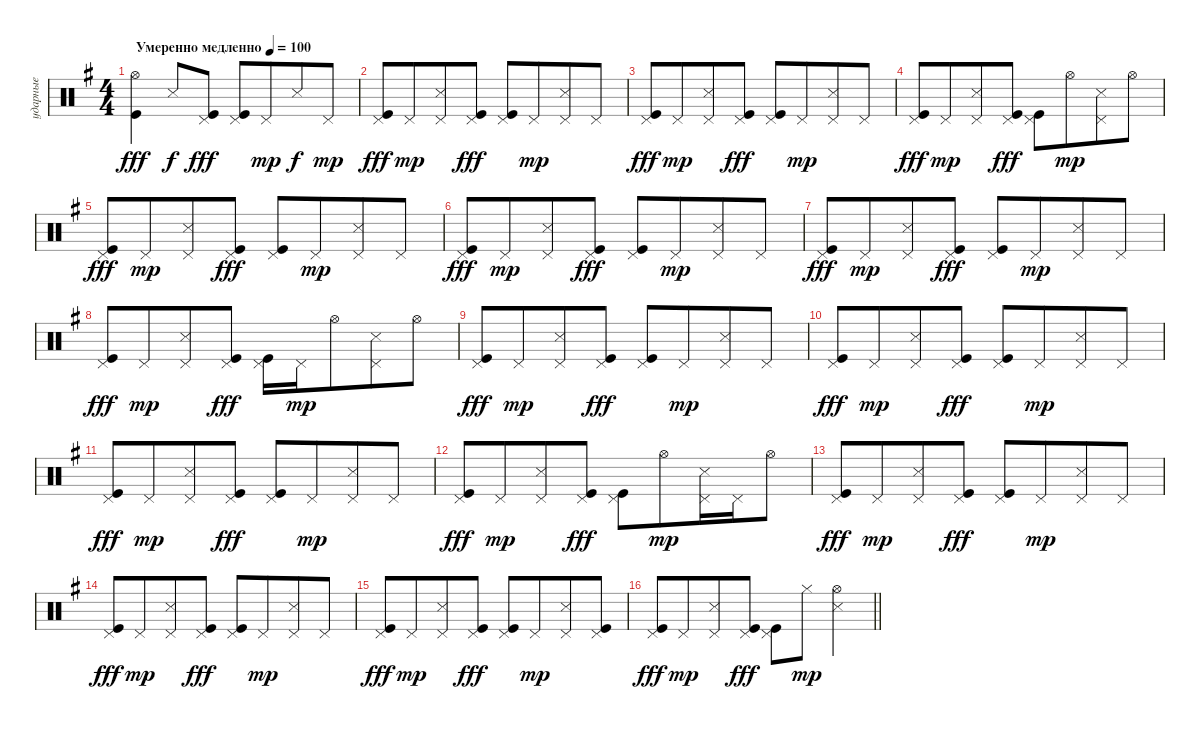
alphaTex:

\track ("ударные" "ударные") {instrument percussion}
\staff {score}
\articulation defaults
\ts (4 4)
\section ("" "")
\tempo (100 "Умеренно медленно")
\clef neutral
\ks eminor
("Hi-Hat (open)" "Kick (hit)").4{dy fff} "Snare (side stick) 3".8{dy f} ("Pedal Hi-Hat (hit)" "Kick (hit)").8{dy fff} ("Pedal Hi-Hat (hit)" "Kick (hit)").8 "Pedal Hi-Hat (hit)".8{dy mp beam merge} "Snare (side stick) 3".8{dy f} "Pedal Hi-Hat (hit)".8{dy mp} |
("Pedal Hi-Hat (hit)" "Kick (hit)").8{dy fff} "Pedal Hi-Hat (hit)".8{dy mp beam merge} ("Pedal Hi-Hat (hit)" "Snare (side stick) 3").8 ("Pedal Hi-Hat (hit)" "Kick (hit)").8{dy fff} ("Pedal Hi-Hat (hit)" "Kick (hit)").8 "Pedal Hi-Hat (hit)".8{dy mp beam merge} ("Pedal Hi-Hat (hit)" "Snare (side stick) 3").8 "Pedal Hi-Hat (hit)".8 |
("Pedal Hi-Hat (hit)" "Kick (hit)").8{dy fff} "Pedal Hi-Hat (hit)".8{dy mp beam merge} ("Pedal Hi-Hat (hit)" "Snare (side stick) 3").8 ("Pedal Hi-Hat (hit)" "Kick (hit)").8{dy fff} ("Pedal Hi-Hat (hit)" "Kick (hit)").8 "Pedal Hi-Hat (hit)".8{dy mp beam merge} ("Pedal Hi-Hat (hit)" "Snare (side stick) 3").8 "Pedal Hi-Hat (hit)".8 |
("Pedal Hi-Hat (hit)" "Kick (hit)").8{dy fff} "Pedal Hi-Hat (hit)".8{dy mp beam merge} ("Pedal Hi-Hat (hit)" "Snare (side stick) 3").8 ("Pedal Hi-Hat (hit)" "Kick (hit)").8{dy fff} ("Pedal Hi-Hat (hit)" "Kick (hit)").8 "Hi-Hat (open)".8{dy mp beam merge} ("Pedal Hi-Hat (hit)" "Snare (side stick) 3").8 "Hi-Hat (open)".8 |
("Pedal Hi-Hat (hit)" "Kick (hit)").8{dy fff} "Pedal Hi-Hat (hit)".8{dy mp beam merge} ("Pedal Hi-Hat (hit)" "Snare (side stick) 3").8 ("Pedal Hi-Hat (hit)" "Kick (hit)").8{dy fff} ("Pedal Hi-Hat (hit)" "Kick (hit)").8 "Pedal Hi-Hat (hit)".8{dy mp beam merge} ("Pedal Hi-Hat (hit)" "Snare (side stick) 3").8 "Pedal Hi-Hat (hit)".8 |
("Pedal Hi-Hat (hit)" "Kick (hit)").8{dy fff} "Pedal Hi-Hat (hit)".8{dy mp beam merge} ("Pedal Hi-Hat (hit)" "Snare (side stick) 3").8 ("Pedal Hi-Hat (hit)" "Kick (hit)").8{dy fff} ("Pedal Hi-Hat (hit)" "Kick (hit)").8 "Pedal Hi-Hat (hit)".8{dy mp beam merge} ("Pedal Hi-Hat (hit)" "Snare (side stick) 3").8 "Pedal Hi-Hat (hit)".8 |
("Pedal Hi-Hat (hit)" "Kick (hit)").8{dy fff} "Pedal Hi-Hat (hit)".8{dy mp beam merge} ("Pedal Hi-Hat (hit)" "Snare (side stick) 3").8 ("Pedal Hi-Hat (hit)" "Kick (hit)").8{dy fff} ("Pedal Hi-Hat (hit)" "Kick (hit)").8 "Pedal Hi-Hat (hit)".8{dy mp beam merge} ("Pedal Hi-Hat (hit)" "Snare (side stick) 3").8 "Pedal Hi-Hat (hit)".8 |
("Pedal Hi-Hat (hit)" "Kick (hit)").8{dy fff} "Pedal Hi-Hat (hit)".8{dy mp beam merge} ("Pedal Hi-Hat (hit)" "Snare (side stick) 3").8 ("Pedal Hi-Hat (hit)" "Kick (hit)").8{dy fff} ("Pedal Hi-Hat (hit)" "Kick (hit)").16 "Pedal Hi-Hat (hit)".16{dy mp} "Hi-Hat (open)".8{beam merge} ("Pedal Hi-Hat (hit)" "Snare (side stick) 3").8 "Hi-Hat (open)".8 |
("Pedal Hi-Hat (hit)" "Kick (hit)").8{dy fff} "Pedal Hi-Hat (hit)".8{dy mp beam merge} ("Pedal Hi-Hat (hit)" "Snare (side stick) 3").8 ("Pedal Hi-Hat (hit)" "Kick (hit)").8{dy fff} ("Pedal Hi-Hat (hit)" "Kick (hit)").8 "Pedal Hi-Hat (hit)".8{dy mp beam merge} ("Pedal Hi-Hat (hit)" "Snare (side stick) 3").8 "Pedal Hi-Hat (hit)".8 |
("Pedal Hi-Hat (hit)" "Kick (hit)").8{dy fff} "Pedal Hi-Hat (hit)".8{dy mp beam merge} ("Pedal Hi-Hat (hit)" "Snare (side stick) 3").8 ("Pedal Hi-Hat (hit)" "Kick (hit)").8{dy fff} ("Pedal Hi-Hat (hit)" "Kick (hit)").8 "Pedal Hi-Hat (hit)".8{dy mp beam merge} ("Pedal Hi-Hat (hit)" "Snare (side stick) 3").8 "Pedal Hi-Hat (hit)".8 |
("Pedal Hi-Hat (hit)" "Kick (hit)").8{dy fff} "Pedal Hi-Hat (hit)".8{dy mp beam merge} ("Pedal Hi-Hat (hit)" "Snare (side stick) 3").8 ("Pedal Hi-Hat (hit)" "Kick (hit)").8{dy fff} ("Pedal Hi-Hat (hit)" "Kick (hit)").8 "Pedal Hi-Hat (hit)".8{dy mp beam merge} ("Pedal Hi-Hat (hit)" "Snare (side stick) 3").8 "Pedal Hi-Hat (hit)".8 |
("Pedal Hi-Hat (hit)" "Kick (hit)").8{dy fff} "Pedal Hi-Hat (hit)".8{dy mp beam merge} ("Pedal Hi-Hat (hit)" "Snare (side stick) 3").8 ("Pedal Hi-Hat (hit)" "Kick (hit)").8{dy fff} ("Pedal Hi-Hat (hit)" "Kick (hit)").8 "Hi-Hat (open)".8{dy mp beam merge} ("Pedal Hi-Hat (hit)" "Snare (side stick) 3").16 "Pedal Hi-Hat (hit)".16 "Hi-Hat (open)".8 |
("Pedal Hi-Hat (hit)" "Kick (hit)").8{dy fff} "Pedal Hi-Hat (hit)".8{dy mp beam merge} ("Pedal Hi-Hat (hit)" "Snare (side stick) 3").8 ("Pedal Hi-Hat (hit)" "Kick (hit)").8{dy fff} ("Pedal Hi-Hat (hit)" "Kick (hit)").8 "Pedal Hi-Hat (hit)".8{dy mp beam merge} ("Pedal Hi-Hat (hit)" "Snare (side stick) 3").8 "Pedal Hi-Hat (hit)".8 |
("Pedal Hi-Hat (hit)" "Kick (hit)").8{dy fff} "Pedal Hi-Hat (hit)".8{dy mp beam merge} ("Pedal Hi-Hat (hit)" "Snare (side stick) 3").8 ("Pedal Hi-Hat (hit)" "Kick (hit)").8{dy fff} ("Pedal Hi-Hat (hit)" "Kick (hit)").8 "Pedal Hi-Hat (hit)".8{dy mp beam merge} ("Pedal Hi-Hat (hit)" "Snare (side stick) 3").8 "Pedal Hi-Hat (hit)".8 |
("Pedal Hi-Hat (hit)" "Kick (hit)").8{dy fff} "Pedal Hi-Hat (hit)".8{dy mp beam merge} ("Pedal Hi-Hat (hit)" "Snare (side stick) 3").8 ("Pedal Hi-Hat (hit)" "Kick (hit)").8{dy fff} ("Pedal Hi-Hat (hit)" "Kick (hit)").8 "Pedal Hi-Hat (hit)".8{dy mp beam merge} ("Pedal Hi-Hat (hit)" "Snare (side stick) 3").8 ("Pedal Hi-Hat (hit)" "Kick (hit)").8 |
\barLineRight lightlight
("Pedal Hi-Hat (hit)" "Kick (hit)").8{dy fff} "Pedal Hi-Hat (hit)".8{dy mp beam merge} ("Pedal Hi-Hat (hit)" "Snare (side stick) 3").8 ("Pedal Hi-Hat (hit)" "Kick (hit)").8{dy fff} ("Pedal Hi-Hat (hit)" "Kick (hit)").8 "Hi-Hat (closed)".8{dy mp beam merge} ("Hi-Hat (open)" "Snare (side stick) 3").4
